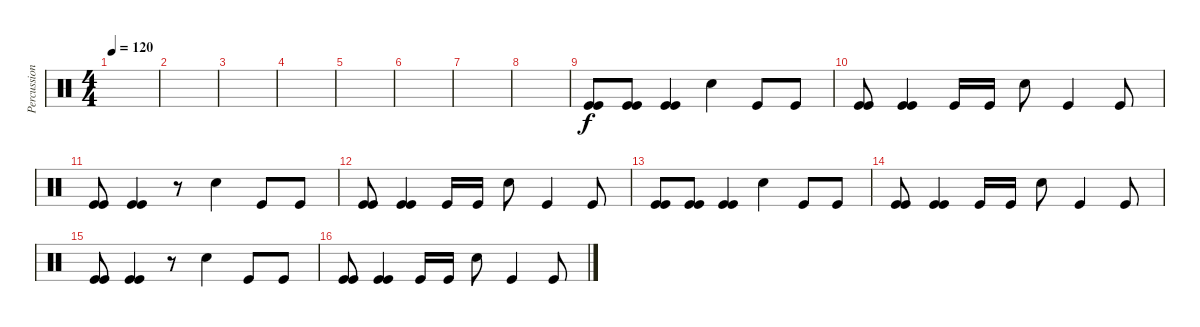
\track ("Percussion" "Percussion") {instrument percussion}
\staff {score}
\articulation defaults
\ts (4 4)
\tempo 120
\clef neutral
\ks c
|
|
|
|
|
|
|
|
("Kick (hit)" "Kick (hit)").8 ("Kick (hit)" "Kick (hit)").8 ("Kick (hit)" "Kick (hit)").4 "Electric Snare (hit)".4 "Kick (hit)".8 "Kick (hit)".8 |
("Kick (hit)" "Kick (hit)").8 ("Kick (hit)" "Kick (hit)").4 "Kick (hit)".16 "Kick (hit)".16 "Electric Snare (hit)".8 "Kick (hit)".4 "Kick (hit)".8 |
("Kick (hit)" "Kick (hit)").8 ("Kick (hit)" "Kick (hit)").4 r.8 "Electric Snare (hit)".4 "Kick (hit)".8 "Kick (hit)".8 |
("Kick (hit)" "Kick (hit)").8 ("Kick (hit)" "Kick (hit)").4 "Kick (hit)".16 "Kick (hit)".16 "Electric Snare (hit)".8 "Kick (hit)".4 "Kick (hit)".8 |
("Kick (hit)" "Kick (hit)").8 ("Kick (hit)" "Kick (hit)").8 ("Kick (hit)" "Kick (hit)").4 "Electric Snare (hit)".4 "Kick (hit)".8 "Kick (hit)".8 |
("Kick (hit)" "Kick (hit)").8 ("Kick (hit)" "Kick (hit)").4 "Kick (hit)".16 "Kick (hit)".16 "Electric Snare (hit)".8 "Kick (hit)".4 "Kick (hit)".8 |
("Kick (hit)" "Kick (hit)").8 ("Kick (hit)" "Kick (hit)").4 r.8 "Electric Snare (hit)".4 "Kick (hit)".8 "Kick (hit)".8 |
("Kick (hit)" "Kick (hit)").8 ("Kick (hit)" "Kick (hit)").4 "Kick (hit)".16 "Kick (hit)".16 "Electric Snare (hit)".8 "Kick (hit)".4 "Kick (hit)".8
